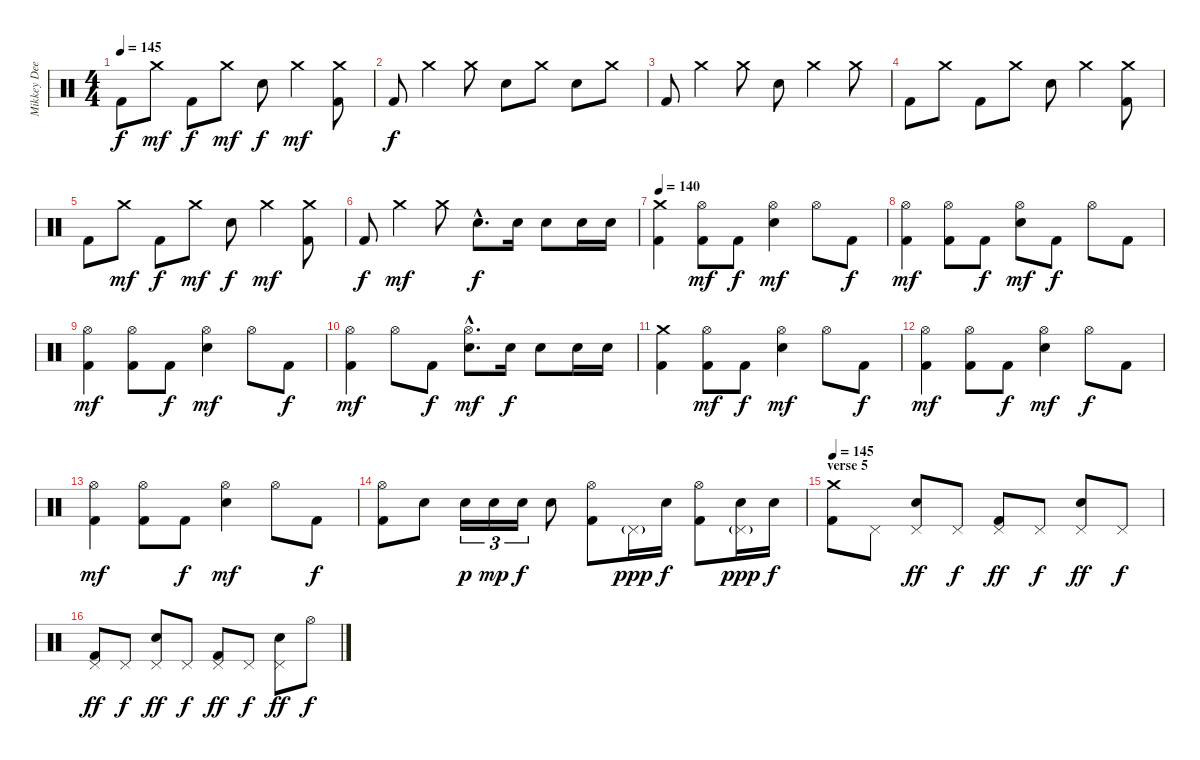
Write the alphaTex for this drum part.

\track ("Mikkey Dee" "Mikkey Dee") {instrument percussion}
\staff {score}
\articulation defaults
\ts (4 4)
\tempo 145
\clef neutral
\ks c "Kick (hit) 2".8{dy f} "Crash medium (hit)".8{dy mf} "Kick (hit) 2".8{dy f} "Crash medium (hit)".8{dy mf} "Snare (hit) 2".8{dy f} "Crash medium (hit)".4{dy mf}
("Kick (hit) 2" "Crash medium (hit)").8 |
"Kick (hit) 2".8{dy f} "Crash medium (hit)".4 "Crash medium (hit)".8 "Snare (hit) 2".8 "Crash medium (hit)".8 "Snare (hit) 2".8 "Crash medium (hit)".8 |
"Kick (hit) 2".8 "Crash medium (hit)".4 "Crash medium (hit)".8 "Snare (hit) 2".8 "Crash medium (hit)".4 "Crash medium (hit)".8 |
"Kick (hit) 2".8 "Crash medium (hit)".8 "Kick (hit) 2".8 "Crash medium (hit)".8 "Snare (hit) 2".8 "Crash medium (hit)".4 ("Kick (hit) 2" "Crash medium (hit)").8 |
"Kick (hit) 2".8 "Crash medium (hit)".8{dy mf} "Kick (hit) 2".8{dy f} "Crash medium (hit)".8{dy mf} "Snare (hit) 2".8{dy f} "Crash medium (hit)".4{dy mf} ("Kick (hit) 2" "Crash medium (hit)").8 |
"Kick (hit) 2".8{dy f} "Crash medium (hit)".4{dy mf} "Crash medium (hit)".8 "Snare (hit) 2"{hac}.8{d dy f} "Snare (hit) 2".16 "Snare (hit) 2".8 "Snare (hit) 2".16 "Snare (hit) 2".16 |
\tempo 140
("Kick (hit) 2" "Crash medium (hit)").4 ("Kick (hit) 2" "Hi-Hat (open)").8{dy mf} "Kick (hit) 2".8{dy f} ("Hi-Hat (open)" "Snare (hit) 2").4{dy mf} "Hi-Hat (open)".8 "Kick (hit) 2".8{dy f} |
("Kick (hit) 2" "Hi-Hat (open)").4{dy mf} ("Kick (hit) 2" "Hi-Hat (open)").8 "Kick (hit) 2".8{dy f} ("Hi-Hat (open)" "Snare (hit) 2").8{dy mf} "Kick (hit) 2".8{dy f} "Hi-Hat (open)".8 "Kick (hit) 2".8 |
("Kick (hit) 2" "Hi-Hat (open)").4{dy mf} ("Kick (hit) 2" "Hi-Hat (open)").8 "Kick (hit) 2".8{dy f} ("Hi-Hat (open)" "Snare (hit) 2").4{dy mf} "Hi-Hat (open)".8 "Kick (hit) 2".8{dy f} |
("Kick (hit) 2" "Hi-Hat (open)").4{dy mf} "Hi-Hat (open)".8 "Kick (hit) 2".8{dy f} ("Hi-Hat (open)"{hac} "Snare (hit) 2"{hac}).8{d dy mf} "Snare (hit) 2".16{dy f} "Snare (hit) 2".8 "Snare (hit) 2".16 "Snare (hit) 2".16 |
("Kick (hit) 2" "Crash medium (hit)").4 ("Kick (hit) 2" "Hi-Hat (open)").8{dy mf} "Kick (hit) 2".8{dy f} ("Hi-Hat (open)" "Snare (hit) 2").4{dy mf} "Hi-Hat (open)".8 "Kick (hit) 2".8{dy f} |
("Kick (hit) 2" "Hi-Hat (open)").4{dy mf} ("Kick (hit) 2" "Hi-Hat (open)").8 "Kick (hit) 2".8{dy f} ("Hi-Hat (open)" "Snare (hit) 2").4{dy mf} "Hi-Hat (open)".8{dy f} "Kick (hit) 2".8 |
("Kick (hit) 2" "Hi-Hat (open)").4{dy mf} ("Kick (hit) 2" "Hi-Hat (open)").8 "Kick (hit) 2".8{dy f} ("Hi-Hat (open)" "Snare (hit) 2").4{dy mf} "Hi-Hat (open)".8 "Kick (hit) 2".8{dy f} |
("Kick (hit) 2" "Hi-Hat (open)").8 "Snare (hit) 2".8 "Snare (hit) 2".16{tu (3 2) dy p} "Snare (hit) 2".16{tu (3 2) dy mp} "Snare (hit) 2".16{tu (3 2) dy f} "Snare (hit) 2".8 ("Kick (hit) 2" "Hi-Hat (open)").8 "Pedal Hi-Hat (hit)"{g}.16{dy ppp} "Snare (hit) 2".16{dy f} ("Kick (hit) 2" "Hi-Hat (open)").8 ("Pedal Hi-Hat (hit)"{g} "Snare (hit) 2").16{dy ppp} "Snare (hit) 2".16{dy f} |
\section ("" "verse 5")
\tempo 145
("Kick (hit) 2" "Crash medium (hit)").8 "Pedal Hi-Hat (hit)".8 ("Pedal Hi-Hat (hit)" "Snare (hit) 2").8{dy ff} "Pedal Hi-Hat (hit)".8{dy f} ("Kick (hit) 2" "Pedal Hi-Hat (hit)").8{dy ff} "Pedal Hi-Hat (hit)".8{dy f} ("Pedal Hi-Hat (hit)" "Snare (hit) 2").8{dy ff} "Pedal Hi-Hat (hit)".8{dy f} |
("Kick (hit) 2" "Pedal Hi-Hat (hit)").8{dy ff} "Pedal Hi-Hat (hit)".8{dy f} ("Pedal Hi-Hat (hit)" "Snare (hit) 2").8{dy ff} "Pedal Hi-Hat (hit)".8{dy f} ("Kick (hit) 2" "Pedal Hi-Hat (hit)").8{dy ff} "Pedal Hi-Hat (hit)".8{dy f} ("Pedal Hi-Hat (hit)" "Snare (hit) 2").8{dy ff} "Hi-Hat (open)".8{dy f}
